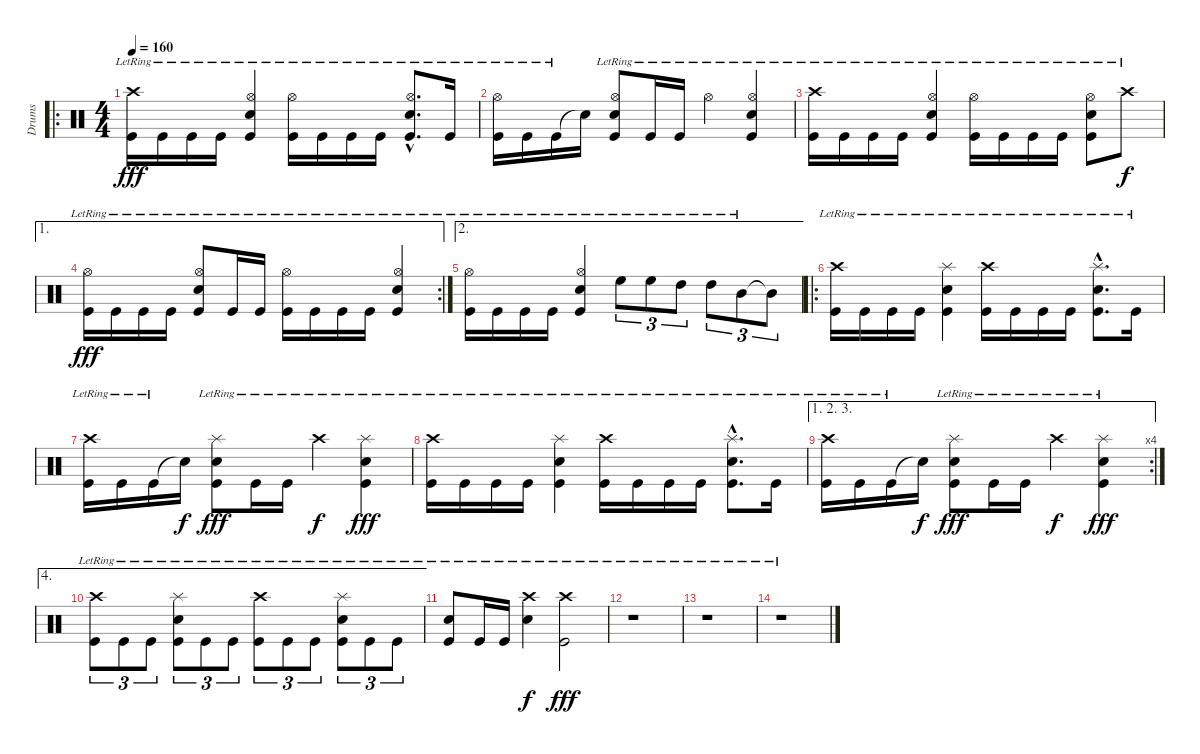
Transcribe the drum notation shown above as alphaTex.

\track ("Drums" "Drums") {instrument percussion}
\staff {score}
\articulation defaults
\ro
\ts (4 4)
\tempo 160
\clef neutral
\ks c
("Crash high (hit)"{lr} "Kick (hit)"{lr}).16{dy fff} "Kick (hit)"{lr}.16 "Kick (hit)"{lr}.16 "Kick (hit)"{lr}.16 ("Hi-Hat (open)"{lr} "Snare (hit) 2"{lr} "Kick (hit)"{lr}).4 ("Hi-Hat (open)"{lr} "Kick (hit)"{lr}).16 "Kick (hit)"{lr}.16 "Kick (hit)"{lr}.16 "Kick (hit)"{lr}.16 ("Hi-Hat (open)"{hac lr} "Snare (hit) 2"{hac lr} "Kick (hit)"{hac lr}).8{d} "Kick (hit)"{lr}.16 |
("Hi-Hat (open)"{lr} "Kick (hit)"{lr}).16 "Kick (hit)"{lr}.16 "Kick (hit)"{lr}.16 "Snare (hit)"{t}.16 ("Hi-Hat (open)"{lr} "Snare (hit) 2"{lr} "Kick (hit)"{lr}).8 "Kick (hit)"{lr}.16 "Kick (hit)"{lr}.16 "Hi-Hat (open)"{lr}.4 ("Hi-Hat (open)"{lr} "Snare (hit) 2"{lr} "Kick (hit)"{lr}).4 |
("Crash high (hit)"{lr} "Kick (hit)"{lr}).16 "Kick (hit)"{lr}.16 "Kick (hit)"{lr}.16 "Kick (hit)"{lr}.16 ("Hi-Hat (open)"{lr} "Snare (hit) 2"{lr} "Kick (hit)"{lr}).4 ("Hi-Hat (open)"{lr} "Kick (hit)"{lr}).16 "Kick (hit)"{lr}.16 "Kick (hit)"{lr}.16 "Kick (hit)"{lr}.16 ("Hi-Hat (open)"{lr} "Snare (hit) 2"{lr} "Kick (hit)"{lr}).8 "Crash high (hit)"{lr}.8{dy f} |
\ae 1
\rc 2
("Hi-Hat (open)"{lr} "Kick (hit)"{lr}).16{dy fff} "Kick (hit)"{lr}.16 "Kick (hit)"{lr}.16 "Kick (hit)"{lr}.16 ("Hi-Hat (open)"{lr} "Snare (hit) 2"{lr} "Kick (hit)"{lr}).8 "Kick (hit)"{lr}.16 "Kick (hit)"{lr}.16 ("Hi-Hat (open)"{lr} "Kick (hit)"{lr}).16 "Kick (hit)"{lr}.16 "Kick (hit)"{lr}.16 "Kick (hit)"{lr}.16 ("Hi-Hat (open)"{lr} "Snare (hit) 2"{lr} "Kick (hit)"{lr}).4 |
\ae 2
("Hi-Hat (open)"{lr} "Kick (hit)"{lr}).16 "Kick (hit)"{lr}.16 "Kick (hit)"{lr}.16 "Kick (hit)"{lr}.16 ("Hi-Hat (open)"{lr} "Snare (hit) 2"{lr} "Kick (hit)"{lr}).4 "High Floor Tom (hit)"{lr}.8{tu (3 2)} "High Floor Tom (hit)"{lr}.8{tu (3 2)} "High Tom (hit)"{lr}.8{tu (3 2)} "High Tom (hit)"{lr}.8{tu (3 2)} "Mid Tom (hit)"{lr}.8{tu (3 2)} "Mid Tom (hit)"{t}.8{tu (3 2)} |
\ro
("Crash high (hit)"{lr} "Kick (hit)"{lr}).16 "Kick (hit)"{lr}.16 "Kick (hit)"{lr}.16 "Kick (hit)"{lr}.16 ("Splash (hit)"{lr} "Snare (hit) 2"{lr} "Kick (hit)"{lr}).4 ("Crash high (hit)"{lr} "Kick (hit)"{lr}).16 "Kick (hit)"{lr}.16 "Kick (hit)"{lr}.16 "Kick (hit)"{lr}.16 ("Splash (hit)"{hac lr} "Snare (hit) 2"{hac lr} "Kick (hit)"{hac lr}).8{d} "Kick (hit)"{lr}.16 |
("Crash high (hit)"{lr} "Kick (hit)"{lr}).16 "Kick (hit)"{lr}.16 "Kick (hit)"{lr}.16 "Snare (hit)"{t}.16{dy f} ("Splash (hit)"{lr} "Snare (hit) 2"{lr} "Kick (hit)"{lr}).8{dy fff} "Kick (hit)"{lr}.16 "Kick (hit)"{lr}.16 "Crash high (hit)"{lr}.4{dy f} ("Splash (hit)"{lr} "Snare (hit) 2"{lr} "Kick (hit)"{lr}).4{dy fff} |
("Crash high (hit)"{lr} "Kick (hit)"{lr}).16 "Kick (hit)"{lr}.16 "Kick (hit)"{lr}.16 "Kick (hit)"{lr}.16 ("Splash (hit)"{lr} "Snare (hit) 2"{lr} "Kick (hit)"{lr}).4 ("Crash high (hit)"{lr} "Kick (hit)"{lr}).16 "Kick (hit)"{lr}.16 "Kick (hit)"{lr}.16 "Kick (hit)"{lr}.16 ("Splash (hit)"{hac lr} "Snare (hit) 2"{hac lr} "Kick (hit)"{hac lr}).8{d} "Kick (hit)"{lr}.16 |
\ae (1 2 3)
\rc 4
("Crash high (hit)"{lr} "Kick (hit)"{lr}).16 "Kick (hit)"{lr}.16 "Kick (hit)"{lr}.16 "Snare (hit)"{t}.16{dy f} ("Splash (hit)"{lr} "Snare (hit) 2"{lr} "Kick (hit)"{lr}).8{dy fff} "Kick (hit)"{lr}.16 "Kick (hit)"{lr}.16 "Crash high (hit)"{lr}.4{dy f} ("Splash (hit)"{lr} "Snare (hit) 2"{lr} "Kick (hit)"{lr}).4{dy fff} |
\ae 4
("Crash high (hit)"{lr} "Kick (hit)"{lr}).8{tu (3 2)} "Kick (hit)"{lr}.8{tu (3 2)} "Kick (hit)"{lr}.8{tu (3 2)} ("Splash (hit)"{lr} "Snare (hit) 2"{lr} "Kick (hit)"{lr}).8{tu (3 2)} "Kick (hit)"{lr}.8{tu (3 2)} "Kick (hit)"{lr}.8{tu (3 2)} ("Crash high (hit)"{lr} "Kick (hit)"{lr}).8{tu (3 2)} "Kick (hit)"{lr}.8{tu (3 2)} "Kick (hit)"{lr}.8{tu (3 2)} ("Splash (hit)"{lr} "Snare (hit) 2"{lr} "Kick (hit)"{lr}).8{tu (3 2)} "Kick (hit)"{lr}.8{tu (3 2)} "Kick (hit)"{lr}.8{tu (3 2)} |
("Snare (hit) 2"{lr} "Kick (hit)"{lr}).8 "Kick (hit)"{lr}.16 "Kick (hit)"{lr}.16 ("Crash high (hit)"{lr} "Snare (hit) 2"{lr}).4{dy f} ("Crash high (hit)"{lr} "Kick (hit)"{lr}).2{dy fff} |
r.1 |
r.1 |
r.1
